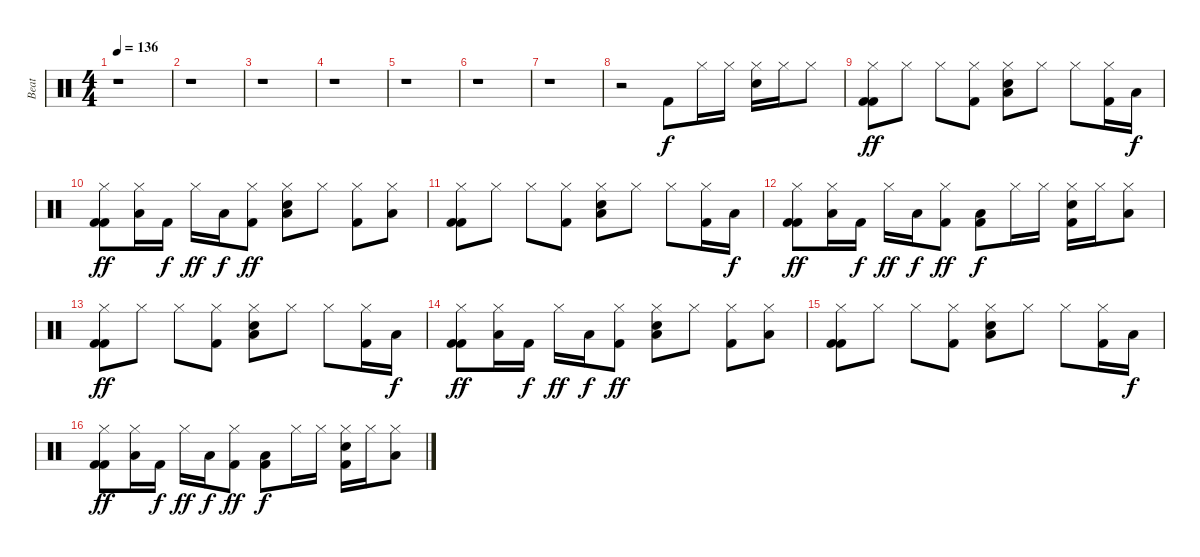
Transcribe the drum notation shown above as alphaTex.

\track ("Beat" "Beat") {instrument percussion}
\staff {score}
\articulation defaults
\ts (4 4)
\tempo 136
\clef neutral
\ks c
r.1{dy f} |
r.1 |
r.1 |
r.1 |
r.1 |
r.1 |
r.1 |
r.2 "Kick (hit) 2".8 "Hi-Hat (closed)".16 "Hi-Hat (closed)".16 ("Snare (hit) 2" "Hi-Hat (closed)").16 "Hi-Hat (closed)".16 "Hi-Hat (closed)".8 |
("Kick (hit) 2" "Hi-Hat (closed)" "Kick (hit) 2").8{dy ff} "Hi-Hat (closed)".8 "Hi-Hat (closed)".8 ("Hi-Hat (closed)" "Kick (hit) 2").8 ("Snare (hit) 2" "Hi-Hat (closed)" "Low Tom (hit)").8 "Hi-Hat (closed)".8 "Hi-Hat (closed)".8 ("Hi-Hat (closed)" "Kick (hit) 2").16 "Low Tom (hit)".16{dy f} |
("Kick (hit) 2" "Hi-Hat (closed)" "Kick (hit) 2").8{dy ff} ("Hi-Hat (closed)" "Low Tom (hit)").16 "Kick (hit) 2".16{dy f} "Hi-Hat (closed)".16{dy ff} "Low Tom (hit)".16{dy f} ("Hi-Hat (closed)" "Kick (hit) 2").8{dy ff} ("Snare (hit) 2" "Hi-Hat (closed)" "Low Tom (hit)").8 "Hi-Hat (closed)".8 ("Hi-Hat (closed)" "Kick (hit) 2").8 ("Hi-Hat (closed)" "Low Tom (hit)").8 |
("Kick (hit) 2" "Hi-Hat (closed)" "Kick (hit) 2").8 "Hi-Hat (closed)".8 "Hi-Hat (closed)".8 ("Hi-Hat (closed)" "Kick (hit) 2").8 ("Snare (hit) 2" "Hi-Hat (closed)" "Low Tom (hit)").8 "Hi-Hat (closed)".8 "Hi-Hat (closed)".8 ("Hi-Hat (closed)" "Kick (hit) 2").16 "Low Tom (hit)".16{dy f} |
("Kick (hit) 2" "Hi-Hat (closed)" "Kick (hit) 2").8{dy ff} ("Hi-Hat (closed)" "Low Tom (hit)").16 "Kick (hit) 2".16{dy f} "Hi-Hat (closed)".16{dy ff} "Low Tom (hit)".16{dy f} ("Hi-Hat (closed)" "Kick (hit) 2").8{dy ff} ("Kick (hit) 2" "Low Tom (hit)").8{dy f} "Hi-Hat (closed)".16 "Hi-Hat (closed)".16 ("Snare (hit) 2" "Hi-Hat (closed)" "Kick (hit) 2").16 "Hi-Hat (closed)".16 ("Hi-Hat (closed)" "Low Tom (hit)").8 |
("Kick (hit) 2" "Hi-Hat (closed)" "Kick (hit) 2").8{dy ff} "Hi-Hat (closed)".8 "Hi-Hat (closed)".8 ("Hi-Hat (closed)" "Kick (hit) 2").8 ("Snare (hit) 2" "Hi-Hat (closed)" "Low Tom (hit)").8 "Hi-Hat (closed)".8 "Hi-Hat (closed)".8 ("Hi-Hat (closed)" "Kick (hit) 2").16 "Low Tom (hit)".16{dy f} |
("Kick (hit) 2" "Hi-Hat (closed)" "Kick (hit) 2").8{dy ff} ("Hi-Hat (closed)" "Low Tom (hit)").16 "Kick (hit) 2".16{dy f} "Hi-Hat (closed)".16{dy ff} "Low Tom (hit)".16{dy f} ("Hi-Hat (closed)" "Kick (hit) 2").8{dy ff} ("Snare (hit) 2" "Hi-Hat (closed)" "Low Tom (hit)").8 "Hi-Hat (closed)".8 ("Hi-Hat (closed)" "Kick (hit) 2").8 ("Hi-Hat (closed)" "Low Tom (hit)").8 |
("Kick (hit) 2" "Hi-Hat (closed)" "Kick (hit) 2").8 "Hi-Hat (closed)".8 "Hi-Hat (closed)".8 ("Hi-Hat (closed)" "Kick (hit) 2").8 ("Snare (hit) 2" "Hi-Hat (closed)" "Low Tom (hit)").8 "Hi-Hat (closed)".8 "Hi-Hat (closed)".8 ("Hi-Hat (closed)" "Kick (hit) 2").16 "Low Tom (hit)".16{dy f} |
("Kick (hit) 2" "Hi-Hat (closed)" "Kick (hit) 2").8{dy ff} ("Hi-Hat (closed)" "Low Tom (hit)").16 "Kick (hit) 2".16{dy f} "Hi-Hat (closed)".16{dy ff} "Low Tom (hit)".16{dy f} ("Hi-Hat (closed)" "Kick (hit) 2").8{dy ff} ("Kick (hit) 2" "Low Tom (hit)").8{dy f} "Hi-Hat (closed)".16 "Hi-Hat (closed)".16 ("Snare (hit) 2" "Hi-Hat (closed)" "Kick (hit) 2").16 "Hi-Hat (closed)".16 ("Hi-Hat (closed)" "Low Tom (hit)").8
